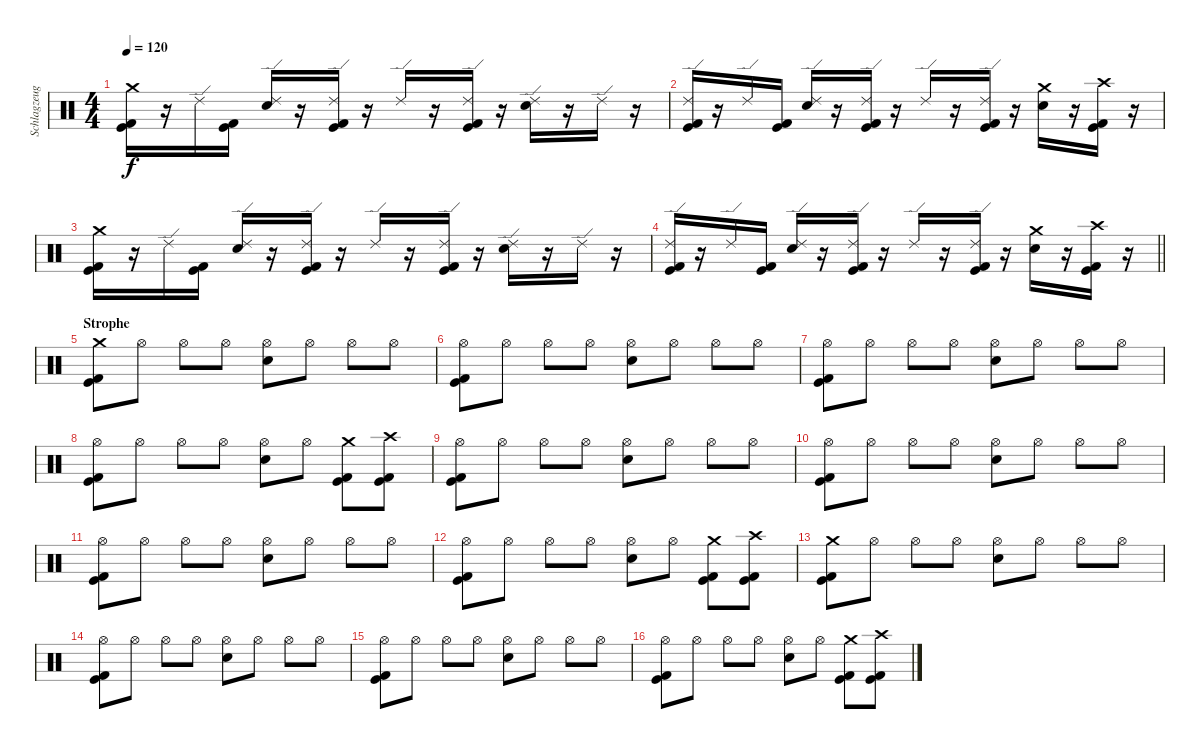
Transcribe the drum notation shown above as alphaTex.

\track ("Schlagzeug" "Schlagzeug") {instrument percussion}
\staff {score}
\articulation defaults
\ts (4 4)
\tempo 120
\clef neutral
\ks c
("Kick (hit) 2" "Kick (hit)" "Crash medium (hit)").16{dy f} r.16 "Ride (edge) 2".16 ("Kick (hit) 2" "Kick (hit)").16 ("Electric Snare (hit)" "Ride (edge) 2").16 r.16 ("Kick (hit) 2" "Kick (hit)" "Ride (edge) 2").16 r.16 "Ride (edge) 2".16 r.16 ("Kick (hit) 2" "Kick (hit)" "Ride (edge) 2").16 r.16 ("Electric Snare (hit)" "Ride (edge) 2").16 r.16 "Ride (edge) 2".16 r.16 |
("Kick (hit) 2" "Kick (hit)" "Ride (edge) 2").16 r.16 "Ride (edge) 2".16 ("Kick (hit) 2" "Kick (hit)").16 ("Electric Snare (hit)" "Ride (edge) 2").16 r.16 ("Kick (hit) 2" "Kick (hit)" "Ride (edge) 2").16 r.16 "Ride (edge) 2".16 r.16 ("Kick (hit) 2" "Kick (hit)" "Ride (edge) 2").16 r.16 ("Electric Snare (hit)" "Crash medium (hit)").16 r.16 ("Kick (hit) 2" "Kick (hit)" "Crash high (hit)").16 r.16 |
("Kick (hit) 2" "Kick (hit)" "Crash medium (hit)").16 r.16 "Ride (edge) 2".16 ("Kick (hit) 2" "Kick (hit)").16 ("Electric Snare (hit)" "Ride (edge) 2").16 r.16 ("Kick (hit) 2" "Kick (hit)" "Ride (edge) 2").16 r.16 "Ride (edge) 2".16 r.16 ("Kick (hit) 2" "Kick (hit)" "Ride (edge) 2").16 r.16 ("Electric Snare (hit)" "Ride (edge) 2").16 r.16 "Ride (edge) 2".16 r.16 |
\barLineRight lightlight
("Kick (hit) 2" "Kick (hit)" "Ride (edge) 2").16 r.16 "Ride (edge) 2".16 ("Kick (hit) 2" "Kick (hit)").16 ("Electric Snare (hit)" "Ride (edge) 2").16 r.16 ("Kick (hit) 2" "Kick (hit)" "Ride (edge) 2").16 r.16 "Ride (edge) 2".16 r.16 ("Kick (hit) 2" "Kick (hit)" "Ride (edge) 2").16 r.16 ("Electric Snare (hit)" "Crash medium (hit)").16 r.16 ("Kick (hit) 2" "Kick (hit)" "Crash high (hit)").16 r.16 |
\section ("" "Strophe")
("Kick (hit) 2" "Kick (hit)" "Crash medium (hit)").8 "Hi-Hat (open)".8 "Hi-Hat (open)".8 "Hi-Hat (open)".8 ("Hi-Hat (open)" "Electric Snare (hit)").8 "Hi-Hat (open)".8 "Hi-Hat (open)".8 "Hi-Hat (open)".8 |
("Hi-Hat (open)" "Kick (hit) 2" "Kick (hit)").8 "Hi-Hat (open)".8 "Hi-Hat (open)".8 "Hi-Hat (open)".8 ("Hi-Hat (open)" "Electric Snare (hit)").8 "Hi-Hat (open)".8 "Hi-Hat (open)".8 "Hi-Hat (open)".8 |
("Hi-Hat (open)" "Kick (hit) 2" "Kick (hit)").8 "Hi-Hat (open)".8 "Hi-Hat (open)".8 "Hi-Hat (open)".8 ("Hi-Hat (open)" "Electric Snare (hit)").8 "Hi-Hat (open)".8 "Hi-Hat (open)".8 "Hi-Hat (open)".8 |
("Hi-Hat (open)" "Kick (hit) 2" "Kick (hit)").8 "Hi-Hat (open)".8 "Hi-Hat (open)".8 "Hi-Hat (open)".8 ("Hi-Hat (open)" "Electric Snare (hit)").8 "Hi-Hat (open)".8 ("Kick (hit) 2" "Kick (hit)" "Crash medium (hit)").8 ("Kick (hit) 2" "Kick (hit)" "Crash high (hit)").8 |
("Hi-Hat (open)" "Kick (hit) 2" "Kick (hit)").8 "Hi-Hat (open)".8 "Hi-Hat (open)".8 "Hi-Hat (open)".8 ("Hi-Hat (open)" "Electric Snare (hit)").8 "Hi-Hat (open)".8 "Hi-Hat (open)".8 "Hi-Hat (open)".8 |
("Hi-Hat (open)" "Kick (hit) 2" "Kick (hit)").8 "Hi-Hat (open)".8 "Hi-Hat (open)".8 "Hi-Hat (open)".8 ("Hi-Hat (open)" "Electric Snare (hit)").8 "Hi-Hat (open)".8 "Hi-Hat (open)".8 "Hi-Hat (open)".8 |
("Hi-Hat (open)" "Kick (hit) 2" "Kick (hit)").8 "Hi-Hat (open)".8 "Hi-Hat (open)".8 "Hi-Hat (open)".8 ("Hi-Hat (open)" "Electric Snare (hit)").8 "Hi-Hat (open)".8 "Hi-Hat (open)".8 "Hi-Hat (open)".8 |
("Hi-Hat (open)" "Kick (hit) 2" "Kick (hit)").8 "Hi-Hat (open)".8 "Hi-Hat (open)".8 "Hi-Hat (open)".8 ("Hi-Hat (open)" "Electric Snare (hit)").8 "Hi-Hat (open)".8 ("Kick (hit) 2" "Kick (hit)" "Crash medium (hit)").8 ("Kick (hit) 2" "Kick (hit)" "Crash high (hit)").8 |
("Kick (hit) 2" "Kick (hit)" "Crash medium (hit)").8 "Hi-Hat (open)".8 "Hi-Hat (open)".8 "Hi-Hat (open)".8 ("Hi-Hat (open)" "Electric Snare (hit)").8 "Hi-Hat (open)".8 "Hi-Hat (open)".8 "Hi-Hat (open)".8 |
("Hi-Hat (open)" "Kick (hit) 2" "Kick (hit)").8 "Hi-Hat (open)".8 "Hi-Hat (open)".8 "Hi-Hat (open)".8 ("Hi-Hat (open)" "Electric Snare (hit)").8 "Hi-Hat (open)".8 "Hi-Hat (open)".8 "Hi-Hat (open)".8 |
("Hi-Hat (open)" "Kick (hit) 2" "Kick (hit)").8 "Hi-Hat (open)".8 "Hi-Hat (open)".8 "Hi-Hat (open)".8 ("Hi-Hat (open)" "Electric Snare (hit)").8 "Hi-Hat (open)".8 "Hi-Hat (open)".8 "Hi-Hat (open)".8 |
("Hi-Hat (open)" "Kick (hit) 2" "Kick (hit)").8 "Hi-Hat (open)".8 "Hi-Hat (open)".8 "Hi-Hat (open)".8 ("Hi-Hat (open)" "Electric Snare (hit)").8 "Hi-Hat (open)".8 ("Kick (hit) 2" "Kick (hit)" "Crash medium (hit)").8 ("Kick (hit) 2" "Kick (hit)" "Crash high (hit)").8
